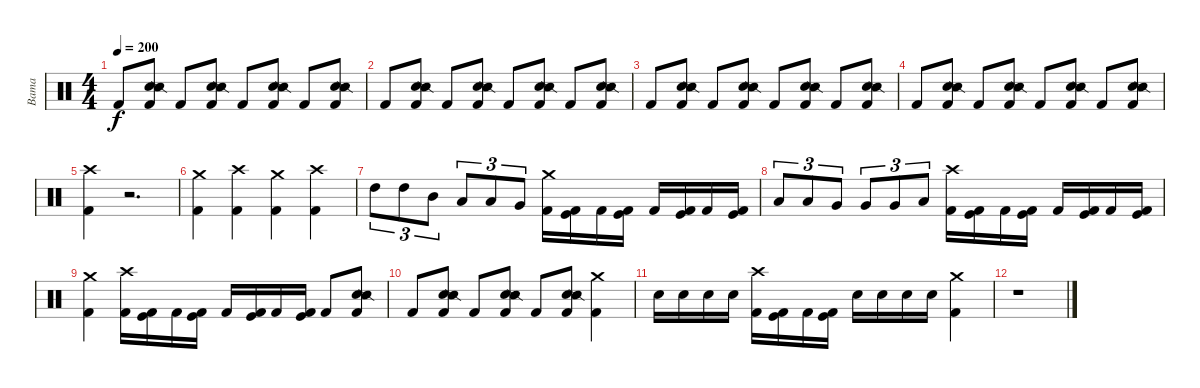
\track ("Bama" "Bama") {instrument percussion}
\staff {score}
\articulation defaults
\ts (4 4)
\tempo 200
\clef neutral
\ks c "Kick (hit) 2".8{dy f}
("Electric Snare (hit)" "Snare (side stick) 2" "Kick (hit) 2").8 "Kick (hit) 2".8 ("Electric Snare (hit)" "Snare (side stick) 2" "Kick (hit) 2").8 "Kick (hit) 2".8 ("Electric Snare (hit)" "Snare (side stick) 2" "Kick (hit) 2").8 "Kick (hit) 2".8 ("Electric Snare (hit)" "Snare (side stick) 2" "Kick (hit) 2").8 |
"Kick (hit) 2".8 ("Electric Snare (hit)" "Snare (side stick) 2" "Kick (hit) 2").8 "Kick (hit) 2".8 ("Electric Snare (hit)" "Snare (side stick) 2" "Kick (hit) 2").8 "Kick (hit) 2".8 ("Electric Snare (hit)" "Snare (side stick) 2" "Kick (hit) 2").8 "Kick (hit) 2".8 ("Electric Snare (hit)" "Snare (side stick) 2" "Kick (hit) 2").8 |
"Kick (hit) 2".8 ("Electric Snare (hit)" "Snare (side stick) 2" "Kick (hit) 2").8 "Kick (hit) 2".8 ("Electric Snare (hit)" "Snare (side stick) 2" "Kick (hit) 2").8 "Kick (hit) 2".8 ("Electric Snare (hit)" "Snare (side stick) 2" "Kick (hit) 2").8 "Kick (hit) 2".8 ("Electric Snare (hit)" "Snare (side stick) 2" "Kick (hit) 2").8 |
"Kick (hit) 2".8 ("Electric Snare (hit)" "Snare (side stick) 2" "Kick (hit) 2").8 "Kick (hit) 2".8 ("Electric Snare (hit)" "Snare (side stick) 2" "Kick (hit) 2").8 "Kick (hit) 2".8 ("Electric Snare (hit)" "Snare (side stick) 2" "Kick (hit) 2").8 "Kick (hit) 2".8 ("Electric Snare (hit)" "Snare (side stick) 2" "Kick (hit) 2").8 |
("Crash high (hit)" "Kick (hit) 2").4 r.2{d} |
("Crash medium (hit)" "Kick (hit) 2").4 ("Crash high (hit)" "Kick (hit) 2").4 ("Crash medium (hit)" "Kick (hit) 2").4 ("Crash high (hit)" "Kick (hit) 2").4 |
"High Tom (hit)".8{tu (3 2)} "High Tom (hit)".8{tu (3 2)} "Mid Tom (hit)".8{tu (3 2)} "Low Tom (hit)".8{tu (3 2)} "Low Tom (hit)".8{tu (3 2)} "Very Low Tom (hit)".8{tu (3 2)} ("Crash medium (hit)" "Kick (hit) 2").16 ("Kick (hit)" "Kick (hit) 2").16 "Kick (hit) 2".16 ("Kick (hit)" "Kick (hit) 2").16 "Kick (hit) 2".16 ("Kick (hit)" "Kick (hit) 2").16 "Kick (hit) 2".16 ("Kick (hit)" "Kick (hit) 2").16 |
"Low Tom (hit)".8{tu (3 2)} "Low Tom (hit)".8{tu (3 2)} "Very Low Tom (hit)".8{tu (3 2)} "Very Low Tom (hit)".8{tu (3 2)} "Very Low Tom (hit)".8{tu (3 2)} "Low Floor Tom (hit)".8{tu (3 2)} ("Crash high (hit)" "Kick (hit) 2").16 ("Kick (hit)" "Kick (hit) 2").16 "Kick (hit) 2".16 ("Kick (hit)" "Kick (hit) 2").16 "Kick (hit) 2".16 ("Kick (hit)" "Kick (hit) 2").16 "Kick (hit) 2".16 ("Kick (hit)" "Kick (hit) 2").16 |
("Crash medium (hit)" "Kick (hit) 2").4 ("Crash high (hit)" "Kick (hit) 2").16 ("Kick (hit)" "Kick (hit) 2").16 "Kick (hit) 2".16 ("Kick (hit)" "Kick (hit) 2").16 "Kick (hit) 2".16 ("Kick (hit)" "Kick (hit) 2").16 "Kick (hit) 2".16 ("Kick (hit)" "Kick (hit) 2").16 "Kick (hit) 2".8 ("Electric Snare (hit)" "Snare (side stick) 2" "Kick (hit) 2").8 |
"Kick (hit) 2".8 ("Electric Snare (hit)" "Snare (side stick) 2" "Kick (hit) 2").8 "Kick (hit) 2".8 ("Electric Snare (hit)" "Snare (side stick) 2" "Kick (hit) 2").8 "Kick (hit) 2".8 ("Electric Snare (hit)" "Snare (side stick) 2" "Kick (hit) 2").8 ("Crash medium (hit)" "Kick (hit) 2").4 |
"Electric Snare (hit)".16 "Electric Snare (hit)".16 "Electric Snare (hit)".16 "Electric Snare (hit)".16 ("Crash high (hit)" "Kick (hit) 2").16 ("Kick (hit)" "Kick (hit) 2").16 "Kick (hit) 2".16 ("Kick (hit)" "Kick (hit) 2").16 "Electric Snare (hit)".16 "Electric Snare (hit)".16 "Electric Snare (hit)".16 "Electric Snare (hit)".16 ("Crash medium (hit)" "Kick (hit) 2").4 |
r.1
